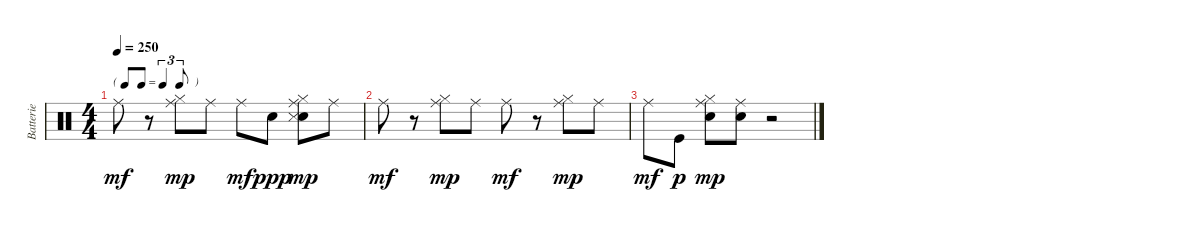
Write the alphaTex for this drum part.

\track ("Batterie" "Batterie") {instrument percussion}
\staff {score}
\articulation defaults
\ts (4 4)
\tf triplet8th
\tempo 250
\clef neutral
\ks c "Ride (middle)".8{dy mf}
r.8 ("Hi-Hat (closed)" "Ride (middle)").8{dy mp} "Ride (middle)".8 "Ride (middle)".8{dy mf} "Snare (hit) 2".8{dy ppp} ("Snare (hit) 2" "Hi-Hat (closed)" "Snare (side stick) 3" "Ride (middle)").8{dy mp} "Ride (middle)".8 |
"Ride (middle)".8{dy mf} r.8 ("Hi-Hat (closed)" "Ride (middle)").8{dy mp} "Ride (middle)".8 "Ride (middle)".8{dy mf} r.8 ("Hi-Hat (closed)" "Ride (middle)").8{dy mp} "Ride (middle)".8 |
"Ride (middle)".8{dy mf} "Kick (hit)".8{dy p} ("Snare (hit) 2" "Hi-Hat (closed)" "Ride (middle)").8{dy mp} ("Snare (hit) 2" "Ride (middle)").8 r.2
